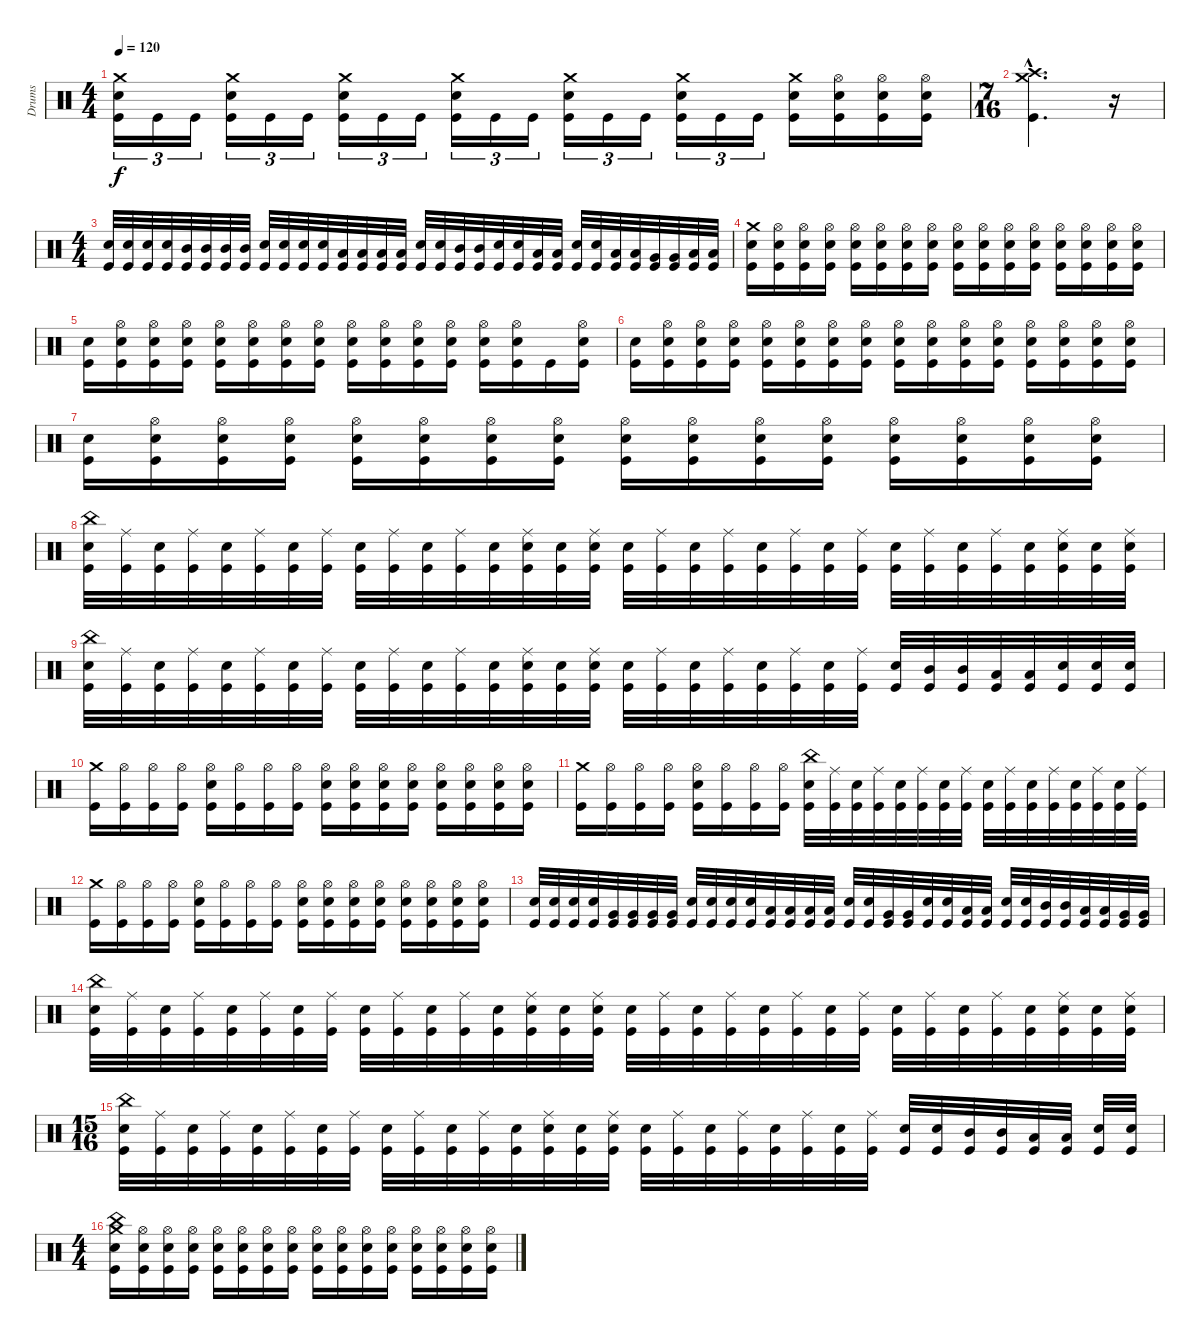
\track ("Drums" "Drums") {instrument percussion}
\staff {score}
\articulation defaults
\ts (4 4)
\tempo 120
\clef neutral
\ks c
("Crash medium (hit)" "Electric Snare (hit)" "Kick (hit)").16{tu (3 2) dy f} "Kick (hit)".16{tu (3 2)} "Kick (hit)".16{tu (3 2)} ("Crash medium (hit)" "Electric Snare (hit)" "Kick (hit)").16{tu (3 2)} "Kick (hit)".16{tu (3 2)} "Kick (hit)".16{tu (3 2)} ("Crash medium (hit)" "Electric Snare (hit)" "Kick (hit)").16{tu (3 2)} "Kick (hit)".16{tu (3 2)} "Kick (hit)".16{tu (3 2)} ("Crash medium (hit)" "Electric Snare (hit)" "Kick (hit)").16{tu (3 2)} "Kick (hit)".16{tu (3 2)} "Kick (hit)".16{tu (3 2)} ("Crash medium (hit)" "Electric Snare (hit)" "Kick (hit)").16{tu (3 2)} "Kick (hit)".16{tu (3 2)} "Kick (hit)".16{tu (3 2)} ("Crash medium (hit)" "Electric Snare (hit)" "Kick (hit)").16{tu (3 2)} "Kick (hit)".16{tu (3 2)} "Kick (hit)".16{tu (3 2)} ("Crash medium (hit)" "Electric Snare (hit)" "Kick (hit)").16 ("Hi-Hat (open)" "Electric Snare (hit)" "Kick (hit)").16 ("Hi-Hat (open)" "Electric Snare (hit)" "Kick (hit)").16 ("Hi-Hat (open)" "Electric Snare (hit)" "Kick (hit)").16 |
\ts (7 16)
("Crash medium (hit)"{hac} "Crash high (hit)"{hac} "Kick (hit)"{hac}).4{d} r.16 |
\ts (4 4)
("Electric Snare (hit)" "Kick (hit)").32 ("Electric Snare (hit)" "Kick (hit)").32 ("Electric Snare (hit)" "Kick (hit)").32 ("Electric Snare (hit)" "Kick (hit)").32 ("Mid Tom (hit)" "Kick (hit)").32 ("Mid Tom (hit)" "Kick (hit)").32 ("Mid Tom (hit)" "Kick (hit)").32 ("Mid Tom (hit)" "Kick (hit)").32 ("Electric Snare (hit)" "Kick (hit)").32 ("Electric Snare (hit)" "Kick (hit)").32 ("Electric Snare (hit)" "Kick (hit)").32 ("Electric Snare (hit)" "Kick (hit)").32 ("Low Tom (hit)" "Kick (hit)").32 ("Low Tom (hit)" "Kick (hit)").32 ("Low Tom (hit)" "Kick (hit)").32 ("Low Tom (hit)" "Kick (hit)").32 ("Electric Snare (hit)" "Kick (hit)").32 ("Electric Snare (hit)" "Kick (hit)").32 ("Mid Tom (hit)" "Kick (hit)").32 ("Mid Tom (hit)" "Kick (hit)").32 ("Electric Snare (hit)" "Kick (hit)").32 ("Electric Snare (hit)" "Kick (hit)").32 ("Low Tom (hit)" "Kick (hit)").32 ("Low Tom (hit)" "Kick (hit)").32 ("Electric Snare (hit)" "Kick (hit)").32 ("Electric Snare (hit)" "Kick (hit)").32 ("Low Tom (hit)" "Kick (hit)").32 ("Low Tom (hit)" "Kick (hit)").32 ("Very Low Tom (hit)" "Kick (hit)").32 ("Very Low Tom (hit)" "Kick (hit)").32 ("Low Floor Tom (hit)" "Kick (hit)").32 ("Low Floor Tom (hit)" "Kick (hit)").32 |
("Crash medium (hit)" "Electric Snare (hit)" "Kick (hit)").16 ("Hi-Hat (open)" "Electric Snare (hit)" "Kick (hit)").16 ("Hi-Hat (open)" "Electric Snare (hit)" "Kick (hit)").16 ("Hi-Hat (open)" "Electric Snare (hit)" "Kick (hit)").16 ("Hi-Hat (open)" "Electric Snare (hit)" "Kick (hit)").16 ("Hi-Hat (open)" "Electric Snare (hit)" "Kick (hit)").16 ("Hi-Hat (open)" "Electric Snare (hit)" "Kick (hit)").16 ("Hi-Hat (open)" "Electric Snare (hit)" "Kick (hit)").16 ("Hi-Hat (open)" "Electric Snare (hit)" "Kick (hit)").16 ("Hi-Hat (open)" "Electric Snare (hit)" "Kick (hit)").16 ("Hi-Hat (open)" "Electric Snare (hit)" "Kick (hit)").16 ("Hi-Hat (open)" "Electric Snare (hit)" "Kick (hit)").16 ("Hi-Hat (open)" "Electric Snare (hit)" "Kick (hit)").16 ("Hi-Hat (open)" "Electric Snare (hit)" "Kick (hit)").16 ("Hi-Hat (open)" "Electric Snare (hit)" "Kick (hit)").16 ("Hi-Hat (open)" "Electric Snare (hit)" "Kick (hit)").16 |
("Electric Snare (hit)" "Kick (hit)").16 ("Hi-Hat (open)" "Electric Snare (hit)" "Kick (hit)").16 ("Hi-Hat (open)" "Electric Snare (hit)" "Kick (hit)").16 ("Hi-Hat (open)" "Electric Snare (hit)" "Kick (hit)").16 ("Hi-Hat (open)" "Electric Snare (hit)" "Kick (hit)").16 ("Hi-Hat (open)" "Electric Snare (hit)" "Kick (hit)").16 ("Hi-Hat (open)" "Electric Snare (hit)" "Kick (hit)").16 ("Hi-Hat (open)" "Electric Snare (hit)" "Kick (hit)").16 ("Hi-Hat (open)" "Electric Snare (hit)" "Kick (hit)").16 ("Hi-Hat (open)" "Electric Snare (hit)" "Kick (hit)").16 ("Hi-Hat (open)" "Electric Snare (hit)" "Kick (hit)").16 ("Hi-Hat (open)" "Electric Snare (hit)" "Kick (hit)").16 ("Hi-Hat (open)" "Electric Snare (hit)" "Kick (hit)").16 ("Hi-Hat (open)" "Electric Snare (hit)" "Kick (hit)").16 "Kick (hit)".16 ("Hi-Hat (open)" "Electric Snare (hit)" "Kick (hit)").16 |
("Electric Snare (hit)" "Kick (hit)").16 ("Hi-Hat (open)" "Electric Snare (hit)" "Kick (hit)").16 ("Hi-Hat (open)" "Electric Snare (hit)" "Kick (hit)").16 ("Hi-Hat (open)" "Electric Snare (hit)" "Kick (hit)").16 ("Hi-Hat (open)" "Electric Snare (hit)" "Kick (hit)").16 ("Hi-Hat (open)" "Electric Snare (hit)" "Kick (hit)").16 ("Hi-Hat (open)" "Electric Snare (hit)" "Kick (hit)").16 ("Hi-Hat (open)" "Electric Snare (hit)" "Kick (hit)").16 ("Hi-Hat (open)" "Electric Snare (hit)" "Kick (hit)").16 ("Hi-Hat (open)" "Electric Snare (hit)" "Kick (hit)").16 ("Hi-Hat (open)" "Electric Snare (hit)" "Kick (hit)").16 ("Hi-Hat (open)" "Electric Snare (hit)" "Kick (hit)").16 ("Hi-Hat (open)" "Electric Snare (hit)" "Kick (hit)").16 ("Hi-Hat (open)" "Electric Snare (hit)" "Kick (hit)").16 ("Hi-Hat (open)" "Electric Snare (hit)" "Kick (hit)").16 ("Hi-Hat (open)" "Electric Snare (hit)" "Kick (hit)").16 |
("Electric Snare (hit)" "Kick (hit)").16 ("Hi-Hat (open)" "Electric Snare (hit)" "Kick (hit)").16 ("Hi-Hat (open)" "Electric Snare (hit)" "Kick (hit)").16 ("Hi-Hat (open)" "Electric Snare (hit)" "Kick (hit)").16 ("Hi-Hat (open)" "Electric Snare (hit)" "Kick (hit)").16 ("Hi-Hat (open)" "Electric Snare (hit)" "Kick (hit)").16 ("Hi-Hat (open)" "Electric Snare (hit)" "Kick (hit)").16 ("Hi-Hat (open)" "Electric Snare (hit)" "Kick (hit)").16 ("Hi-Hat (open)" "Electric Snare (hit)" "Kick (hit)").16 ("Hi-Hat (open)" "Electric Snare (hit)" "Kick (hit)").16 ("Hi-Hat (open)" "Electric Snare (hit)" "Kick (hit)").16 ("Hi-Hat (open)" "Electric Snare (hit)" "Kick (hit)").16 ("Hi-Hat (open)" "Electric Snare (hit)" "Kick (hit)").16 ("Hi-Hat (open)" "Electric Snare (hit)" "Kick (hit)").16 ("Hi-Hat (open)" "Electric Snare (hit)" "Kick (hit)").16 ("Hi-Hat (open)" "Electric Snare (hit)" "Kick (hit)").16 |
("China (hit)" "Electric Snare (hit)" "Kick (hit)").32 ("Ride (middle)" "Kick (hit)").32 ("Electric Snare (hit)" "Kick (hit)").32 ("Ride (middle)" "Kick (hit)").32 ("Electric Snare (hit)" "Kick (hit)").32 ("Ride (middle)" "Kick (hit)").32 ("Electric Snare (hit)" "Kick (hit)").32 ("Ride (middle)" "Kick (hit)").32 ("Electric Snare (hit)" "Kick (hit)").32 ("Ride (middle)" "Kick (hit)").32 ("Electric Snare (hit)" "Kick (hit)").32 ("Ride (middle)" "Kick (hit)").32 ("Electric Snare (hit)" "Kick (hit)").32 ("Ride (middle)" "Electric Snare (hit)" "Kick (hit)").32 ("Electric Snare (hit)" "Kick (hit)").32 ("Ride (middle)" "Electric Snare (hit)" "Kick (hit)").32 ("Electric Snare (hit)" "Kick (hit)").32 ("Ride (middle)" "Kick (hit)").32 ("Electric Snare (hit)" "Kick (hit)").32 ("Ride (middle)" "Kick (hit)").32 ("Electric Snare (hit)" "Kick (hit)").32 ("Ride (middle)" "Kick (hit)").32 ("Electric Snare (hit)" "Kick (hit)").32 ("Ride (middle)" "Kick (hit)").32 ("Electric Snare (hit)" "Kick (hit)").32 ("Ride (middle)" "Kick (hit)").32 ("Electric Snare (hit)" "Kick (hit)").32 ("Ride (middle)" "Kick (hit)").32 ("Electric Snare (hit)" "Kick (hit)").32 ("Ride (middle)" "Electric Snare (hit)" "Kick (hit)").32 ("Electric Snare (hit)" "Kick (hit)").32 ("Ride (middle)" "Electric Snare (hit)" "Kick (hit)").32 |
("China (hit)" "Electric Snare (hit)" "Kick (hit)").32 ("Ride (middle)" "Kick (hit)").32 ("Electric Snare (hit)" "Kick (hit)").32 ("Ride (middle)" "Kick (hit)").32 ("Electric Snare (hit)" "Kick (hit)").32 ("Ride (middle)" "Kick (hit)").32 ("Electric Snare (hit)" "Kick (hit)").32 ("Ride (middle)" "Kick (hit)").32 ("Electric Snare (hit)" "Kick (hit)").32 ("Ride (middle)" "Kick (hit)").32 ("Electric Snare (hit)" "Kick (hit)").32 ("Ride (middle)" "Kick (hit)").32 ("Electric Snare (hit)" "Kick (hit)").32 ("Ride (middle)" "Electric Snare (hit)" "Kick (hit)").32 ("Electric Snare (hit)" "Kick (hit)").32 ("Ride (middle)" "Electric Snare (hit)" "Kick (hit)").32 ("Electric Snare (hit)" "Kick (hit)").32 ("Ride (middle)" "Kick (hit)").32 ("Electric Snare (hit)" "Kick (hit)").32 ("Ride (middle)" "Kick (hit)").32 ("Electric Snare (hit)" "Kick (hit)").32 ("Ride (middle)" "Kick (hit)").32 ("Electric Snare (hit)" "Kick (hit)").32 ("Ride (middle)" "Kick (hit)").32 ("Electric Snare (hit)" "Kick (hit)").32 ("Mid Tom (hit)" "Kick (hit)").32 ("Mid Tom (hit)" "Kick (hit)").32 ("Low Tom (hit)" "Kick (hit)").32 ("Low Tom (hit)" "Kick (hit)").32 ("Electric Snare (hit)" "Kick (hit)").32 ("Electric Snare (hit)" "Kick (hit)").32 ("Electric Snare (hit)" "Kick (hit)").32 |
("Crash medium (hit)" "Kick (hit)").16 ("Hi-Hat (open)" "Kick (hit)").16 ("Hi-Hat (open)" "Kick (hit)").16 ("Hi-Hat (open)" "Kick (hit)").16 ("Hi-Hat (open)" "Electric Snare (hit)" "Kick (hit)").16 ("Hi-Hat (open)" "Kick (hit)").16 ("Hi-Hat (open)" "Kick (hit)").16 ("Hi-Hat (open)" "Kick (hit)").16 ("Hi-Hat (open)" "Electric Snare (hit)" "Kick (hit)").16 ("Hi-Hat (open)" "Electric Snare (hit)" "Kick (hit)").16 ("Hi-Hat (open)" "Electric Snare (hit)" "Kick (hit)").16 ("Hi-Hat (open)" "Electric Snare (hit)" "Kick (hit)").16 ("Hi-Hat (open)" "Electric Snare (hit)" "Kick (hit)").16 ("Hi-Hat (open)" "Electric Snare (hit)" "Kick (hit)").16 ("Hi-Hat (open)" "Electric Snare (hit)" "Kick (hit)").16 ("Hi-Hat (open)" "Electric Snare (hit)" "Kick (hit)").16 |
("Crash medium (hit)" "Kick (hit)").16 ("Hi-Hat (open)" "Kick (hit)").16 ("Hi-Hat (open)" "Kick (hit)").16 ("Hi-Hat (open)" "Kick (hit)").16 ("Hi-Hat (open)" "Electric Snare (hit)" "Kick (hit)").16 ("Hi-Hat (open)" "Kick (hit)").16 ("Hi-Hat (open)" "Kick (hit)").16 ("Hi-Hat (open)" "Kick (hit)").16 ("China (hit)" "Electric Snare (hit)" "Kick (hit)").32 ("Ride (middle)" "Kick (hit)").32 ("Electric Snare (hit)" "Kick (hit)").32 ("Ride (middle)" "Kick (hit)").32 ("Electric Snare (hit)" "Kick (hit)").32 ("Ride (middle)" "Kick (hit)").32 ("Electric Snare (hit)" "Kick (hit)").32 ("Ride (middle)" "Kick (hit)").32 ("Electric Snare (hit)" "Kick (hit)").32 ("Ride (middle)" "Kick (hit)").32 ("Electric Snare (hit)" "Kick (hit)").32 ("Ride (middle)" "Kick (hit)").32 ("Electric Snare (hit)" "Kick (hit)").32 ("Ride (middle)" "Kick (hit)").32 ("Electric Snare (hit)" "Kick (hit)").32 ("Ride (middle)" "Kick (hit)").32 |
("Crash medium (hit)" "Kick (hit)").16 ("Hi-Hat (open)" "Kick (hit)").16 ("Hi-Hat (open)" "Kick (hit)").16 ("Hi-Hat (open)" "Kick (hit)").16 ("Hi-Hat (open)" "Electric Snare (hit)" "Kick (hit)").16 ("Hi-Hat (open)" "Kick (hit)").16 ("Hi-Hat (open)" "Kick (hit)").16 ("Hi-Hat (open)" "Kick (hit)").16 ("Hi-Hat (open)" "Electric Snare (hit)" "Kick (hit)").16 ("Hi-Hat (open)" "Electric Snare (hit)" "Kick (hit)").16 ("Hi-Hat (open)" "Electric Snare (hit)" "Kick (hit)").16 ("Hi-Hat (open)" "Electric Snare (hit)" "Kick (hit)").16 ("Hi-Hat (open)" "Electric Snare (hit)" "Kick (hit)").16 ("Hi-Hat (open)" "Electric Snare (hit)" "Kick (hit)").16 ("Hi-Hat (open)" "Electric Snare (hit)" "Kick (hit)").16 ("Hi-Hat (open)" "Electric Snare (hit)" "Kick (hit)").16 |
("Electric Snare (hit)" "Kick (hit)").32 ("Electric Snare (hit)" "Kick (hit)").32 ("Electric Snare (hit)" "Kick (hit)").32 ("Electric Snare (hit)" "Kick (hit)").32 ("Very Low Tom (hit)" "Kick (hit)").32 ("Very Low Tom (hit)" "Kick (hit)").32 ("Very Low Tom (hit)" "Kick (hit)").32 ("Very Low Tom (hit)" "Kick (hit)").32 ("Electric Snare (hit)" "Kick (hit)").32 ("Electric Snare (hit)" "Kick (hit)").32 ("Electric Snare (hit)" "Kick (hit)").32 ("Electric Snare (hit)" "Kick (hit)").32 ("Low Tom (hit)" "Kick (hit)").32 ("Low Tom (hit)" "Kick (hit)").32 ("Low Tom (hit)" "Kick (hit)").32 ("Low Tom (hit)" "Kick (hit)").32 ("Electric Snare (hit)" "Kick (hit)").32 ("Electric Snare (hit)" "Kick (hit)").32 ("Very Low Tom (hit)" "Kick (hit)").32 ("Very Low Tom (hit)" "Kick (hit)").32 ("Electric Snare (hit)" "Kick (hit)").32 ("Electric Snare (hit)" "Kick (hit)").32 ("Low Floor Tom (hit)" "Kick (hit)").32 ("Low Floor Tom (hit)" "Kick (hit)").32 ("Electric Snare (hit)" "Kick (hit)").32 ("Electric Snare (hit)" "Kick (hit)").32 ("Mid Tom (hit)" "Kick (hit)").32 ("Mid Tom (hit)" "Kick (hit)").32 ("Low Tom (hit)" "Kick (hit)").32 ("Low Tom (hit)" "Kick (hit)").32 ("Very Low Tom (hit)" "Kick (hit)").32 ("Very Low Tom (hit)" "Kick (hit)").32 |
("China (hit)" "Electric Snare (hit)" "Kick (hit)").32 ("Ride (middle)" "Kick (hit)").32 ("Electric Snare (hit)" "Kick (hit)").32 ("Ride (middle)" "Kick (hit)").32 ("Electric Snare (hit)" "Kick (hit)").32 ("Ride (middle)" "Kick (hit)").32 ("Electric Snare (hit)" "Kick (hit)").32 ("Ride (middle)" "Kick (hit)").32 ("Electric Snare (hit)" "Kick (hit)").32 ("Ride (middle)" "Kick (hit)").32 ("Electric Snare (hit)" "Kick (hit)").32 ("Ride (middle)" "Kick (hit)").32 ("Electric Snare (hit)" "Kick (hit)").32 ("Ride (middle)" "Electric Snare (hit)" "Kick (hit)").32 ("Electric Snare (hit)" "Kick (hit)").32 ("Ride (middle)" "Electric Snare (hit)" "Kick (hit)").32 ("Electric Snare (hit)" "Kick (hit)").32 ("Ride (middle)" "Kick (hit)").32 ("Electric Snare (hit)" "Kick (hit)").32 ("Ride (middle)" "Kick (hit)").32 ("Electric Snare (hit)" "Kick (hit)").32 ("Ride (middle)" "Kick (hit)").32 ("Electric Snare (hit)" "Kick (hit)").32 ("Ride (middle)" "Kick (hit)").32 ("Electric Snare (hit)" "Kick (hit)").32 ("Ride (middle)" "Kick (hit)").32 ("Electric Snare (hit)" "Kick (hit)").32 ("Ride (middle)" "Kick (hit)").32 ("Electric Snare (hit)" "Kick (hit)").32 ("Ride (middle)" "Electric Snare (hit)" "Kick (hit)").32 ("Electric Snare (hit)" "Kick (hit)").32 ("Ride (middle)" "Electric Snare (hit)" "Kick (hit)").32 |
\ts (15 16)
("China (hit)" "Electric Snare (hit)" "Kick (hit)").32 ("Ride (middle)" "Kick (hit)").32 ("Electric Snare (hit)" "Kick (hit)").32 ("Ride (middle)" "Kick (hit)").32 ("Electric Snare (hit)" "Kick (hit)").32 ("Ride (middle)" "Kick (hit)").32 ("Electric Snare (hit)" "Kick (hit)").32 ("Ride (middle)" "Kick (hit)").32 ("Electric Snare (hit)" "Kick (hit)").32 ("Ride (middle)" "Kick (hit)").32 ("Electric Snare (hit)" "Kick (hit)").32 ("Ride (middle)" "Kick (hit)").32 ("Electric Snare (hit)" "Kick (hit)").32 ("Ride (middle)" "Electric Snare (hit)" "Kick (hit)").32 ("Electric Snare (hit)" "Kick (hit)").32 ("Ride (middle)" "Electric Snare (hit)" "Kick (hit)").32 ("Electric Snare (hit)" "Kick (hit)").32 ("Ride (middle)" "Kick (hit)").32 ("Electric Snare (hit)" "Kick (hit)").32 ("Ride (middle)" "Kick (hit)").32 ("Electric Snare (hit)" "Kick (hit)").32 ("Ride (middle)" "Kick (hit)").32 ("Electric Snare (hit)" "Kick (hit)").32 ("Ride (middle)" "Kick (hit)").32 ("Electric Snare (hit)" "Kick (hit)").32 ("Electric Snare (hit)" "Kick (hit)").32 ("Mid Tom (hit)" "Kick (hit)").32 ("Mid Tom (hit)" "Kick (hit)").32 ("Low Tom (hit)" "Kick (hit)").32 ("Low Tom (hit)" "Kick (hit)").32 ("Electric Snare (hit)" "Kick (hit)").32 ("Electric Snare (hit)" "Kick (hit)").32 |
\ts (4 4)
("Crash medium (hit)" "China (hit)" "Electric Snare (hit)" "Kick (hit)").16 ("Hi-Hat (open)" "Electric Snare (hit)" "Kick (hit)").16 ("Hi-Hat (open)" "Electric Snare (hit)" "Kick (hit)").16 ("Hi-Hat (open)" "Electric Snare (hit)" "Kick (hit)").16 ("Hi-Hat (open)" "Electric Snare (hit)" "Kick (hit)").16 ("Hi-Hat (open)" "Electric Snare (hit)" "Kick (hit)").16 ("Hi-Hat (open)" "Electric Snare (hit)" "Kick (hit)").16 ("Hi-Hat (open)" "Electric Snare (hit)" "Kick (hit)").16 ("Hi-Hat (open)" "Electric Snare (hit)" "Kick (hit)").16 ("Hi-Hat (open)" "Electric Snare (hit)" "Kick (hit)").16 ("Hi-Hat (open)" "Electric Snare (hit)" "Kick (hit)").16 ("Hi-Hat (open)" "Electric Snare (hit)" "Kick (hit)").16 ("Hi-Hat (open)" "Electric Snare (hit)" "Kick (hit)").16 ("Hi-Hat (open)" "Electric Snare (hit)" "Kick (hit)").16 ("Hi-Hat (open)" "Electric Snare (hit)" "Kick (hit)").16 ("Hi-Hat (open)" "Electric Snare (hit)" "Kick (hit)").16
